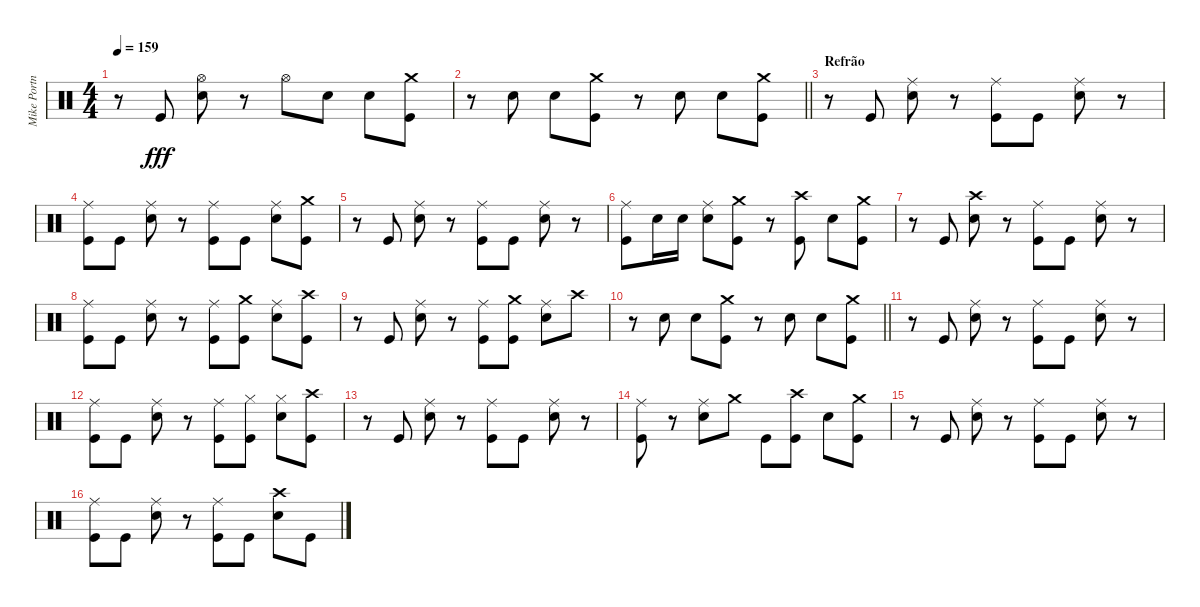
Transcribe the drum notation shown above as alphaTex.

\track ("Mike Portnoy" "Mike Portn") {instrument percussion}
\staff {score}
\articulation defaults
\ts (4 4)
\tempo 159
\clef neutral
\ks c
r.8{dy fff} "Kick (hit)".8 ("Hi-Hat (open)" "Electric Snare (hit)").8 r.8 "Hi-Hat (open)".8 "Electric Snare (hit)".8 "Electric Snare (hit)".8 ("Crash medium (hit)" "Kick (hit)").8 |
\barLineRight lightlight
r.8 "Electric Snare (hit)".8 "Electric Snare (hit)".8 ("Crash medium (hit)" "Kick (hit)").8 r.8 "Electric Snare (hit)".8 "Electric Snare (hit)".8 ("Crash medium (hit)" "Kick (hit)").8 |
\section ("" "Refrão")
r.8 "Kick (hit)".8 ("Ride (middle)" "Electric Snare (hit)").8 r.8 ("Ride (middle)" "Kick (hit)").8 "Kick (hit)".8 ("Ride (middle)" "Electric Snare (hit)").8 r.8 |
("Ride (middle)" "Kick (hit)").8 "Kick (hit)".8 ("Ride (middle)" "Electric Snare (hit)").8 r.8 ("Ride (middle)" "Kick (hit)").8 "Kick (hit)".8 ("Ride (middle)" "Electric Snare (hit)").8 ("Crash medium (hit)" "Kick (hit)").8 |
r.8 "Kick (hit)".8 ("Ride (middle)" "Electric Snare (hit)").8 r.8 ("Ride (middle)" "Kick (hit)").8 "Kick (hit)".8 ("Ride (middle)" "Electric Snare (hit)").8 r.8 |
("Ride (middle)" "Kick (hit)").8 "Electric Snare (hit)".16 "Electric Snare (hit)".16 ("Ride (middle)" "Electric Snare (hit)").8 ("Crash medium (hit)" "Kick (hit)").8 r.8 ("Crash high (hit)" "Kick (hit)").8 "Electric Snare (hit)".8 ("Crash medium (hit)" "Kick (hit)").8 |
r.8 "Kick (hit)".8 ("Crash high (hit)" "Electric Snare (hit)").8 r.8 ("Ride (middle)" "Kick (hit)").8 "Kick (hit)".8 ("Ride (middle)" "Electric Snare (hit)").8 r.8 |
("Ride (middle)" "Kick (hit)").8 "Kick (hit)".8 ("Ride (middle)" "Electric Snare (hit)").8 r.8 ("Ride (middle)" "Kick (hit)").8 ("Crash medium (hit)" "Kick (hit)").8 ("Ride (middle)" "Electric Snare (hit)").8 ("Crash high (hit)" "Kick (hit)").8 |
r.8 "Kick (hit)".8 ("Ride (middle)" "Electric Snare (hit)").8 r.8 ("Ride (middle)" "Kick (hit)").8 ("Crash medium (hit)" "Kick (hit)").8 ("Ride (middle)" "Electric Snare (hit)").8 "Crash high (hit)".8 |
\barLineRight lightlight
r.8 "Electric Snare (hit)".8 "Electric Snare (hit)".8 ("Crash medium (hit)" "Kick (hit)").8 r.8 "Electric Snare (hit)".8 "Electric Snare (hit)".8 ("Crash medium (hit)" "Kick (hit)").8 |
r.8 "Kick (hit)".8 ("Ride (middle)" "Electric Snare (hit)").8 r.8 ("Ride (middle)" "Kick (hit)").8 "Kick (hit)".8 ("Ride (middle)" "Electric Snare (hit)").8 r.8 |
("Ride (middle)" "Kick (hit)").8 "Kick (hit)".8 ("Ride (middle)" "Electric Snare (hit)").8 r.8 ("Ride (middle)" "Kick (hit)").8 ("Hi-Hat (closed)" "Kick (hit)").8 ("Hi-Hat (closed)" "Electric Snare (hit)").8 ("Crash high (hit)" "Kick (hit)").8 |
r.8 "Kick (hit)".8 ("Ride (middle)" "Electric Snare (hit)").8 r.8 ("Ride (middle)" "Kick (hit)").8 "Kick (hit)".8 ("Ride (middle)" "Electric Snare (hit)").8 r.8 |
("Ride (middle)" "Kick (hit)").8 r.8 ("Ride (middle)" "Electric Snare (hit)").8 "Crash medium (hit)".8 "Kick (hit)".8 ("Crash high (hit)" "Kick (hit)").8 "Electric Snare (hit)".8 ("Crash medium (hit)" "Kick (hit)").8 |
r.8 "Kick (hit)".8 ("Ride (middle)" "Electric Snare (hit)").8 r.8 ("Ride (middle)" "Kick (hit)").8 "Kick (hit)".8 ("Ride (middle)" "Electric Snare (hit)").8 r.8 |
("Ride (middle)" "Kick (hit)").8 "Kick (hit)".8 ("Ride (middle)" "Electric Snare (hit)").8 r.8 ("Ride (middle)" "Kick (hit)").8 "Kick (hit)".8 ("Crash high (hit)" "Electric Snare (hit)").8 "Kick (hit)".8
